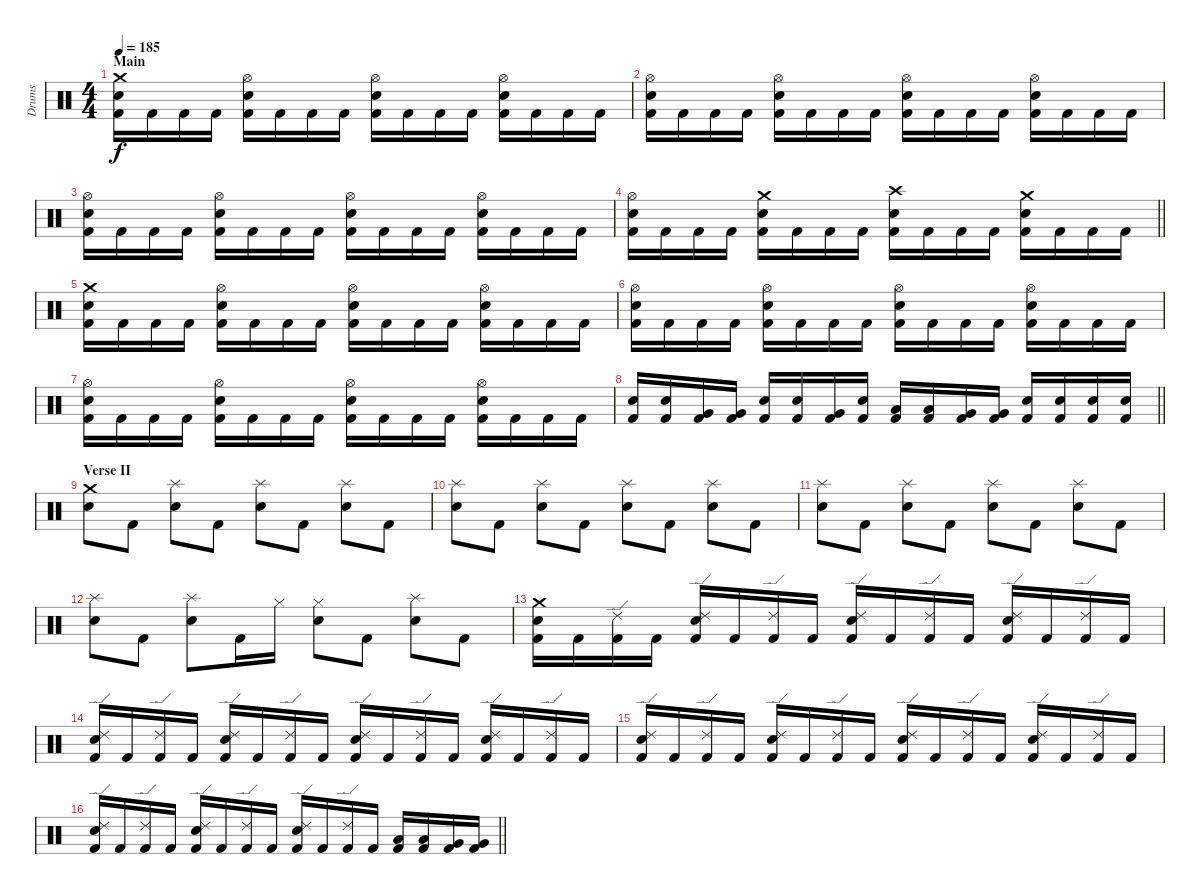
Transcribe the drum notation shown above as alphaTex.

\track ("Drums" "Drums") {instrument percussion}
\staff {score}
\articulation defaults
\ts (4 4)
\section ("" "Main")
\tempo 185
\clef neutral
\ks c
("Kick (hit) 2" "Snare (hit) 2" "Crash medium (hit)").16{dy f} "Kick (hit) 2".16 "Kick (hit) 2".16 "Kick (hit) 2".16 ("Kick (hit) 2" "Snare (hit) 2" "Hi-Hat (open)").16 "Kick (hit) 2".16 "Kick (hit) 2".16 "Kick (hit) 2".16 ("Kick (hit) 2" "Snare (hit) 2" "Hi-Hat (open)").16 "Kick (hit) 2".16 "Kick (hit) 2".16 "Kick (hit) 2".16 ("Kick (hit) 2" "Snare (hit) 2" "Hi-Hat (open)").16 "Kick (hit) 2".16 "Kick (hit) 2".16 "Kick (hit) 2".16 |
("Kick (hit) 2" "Snare (hit) 2" "Hi-Hat (open)").16 "Kick (hit) 2".16 "Kick (hit) 2".16 "Kick (hit) 2".16 ("Kick (hit) 2" "Snare (hit) 2" "Hi-Hat (open)").16 "Kick (hit) 2".16 "Kick (hit) 2".16 "Kick (hit) 2".16 ("Kick (hit) 2" "Snare (hit) 2" "Hi-Hat (open)").16 "Kick (hit) 2".16 "Kick (hit) 2".16 "Kick (hit) 2".16 ("Kick (hit) 2" "Snare (hit) 2" "Hi-Hat (open)").16 "Kick (hit) 2".16 "Kick (hit) 2".16 "Kick (hit) 2".16 |
("Kick (hit) 2" "Snare (hit) 2" "Hi-Hat (open)").16 "Kick (hit) 2".16 "Kick (hit) 2".16 "Kick (hit) 2".16 ("Kick (hit) 2" "Snare (hit) 2" "Hi-Hat (open)").16 "Kick (hit) 2".16 "Kick (hit) 2".16 "Kick (hit) 2".16 ("Kick (hit) 2" "Snare (hit) 2" "Hi-Hat (open)").16 "Kick (hit) 2".16 "Kick (hit) 2".16 "Kick (hit) 2".16 ("Kick (hit) 2" "Snare (hit) 2" "Hi-Hat (open)").16 "Kick (hit) 2".16 "Kick (hit) 2".16 "Kick (hit) 2".16 |
\barLineRight lightlight
("Kick (hit) 2" "Snare (hit) 2" "Hi-Hat (open)").16 "Kick (hit) 2".16 "Kick (hit) 2".16 "Kick (hit) 2".16 ("Kick (hit) 2" "Snare (hit) 2" "Crash medium (hit)").16 "Kick (hit) 2".16 "Kick (hit) 2".16 "Kick (hit) 2".16 ("Kick (hit) 2" "Snare (hit) 2" "Crash high (hit)").16 "Kick (hit) 2".16 "Kick (hit) 2".16 "Kick (hit) 2".16 ("Kick (hit) 2" "Snare (hit) 2" "Crash medium (hit)").16 "Kick (hit) 2".16 "Kick (hit) 2".16 "Kick (hit) 2".16 |
("Kick (hit) 2" "Snare (hit) 2" "Crash medium (hit)").16 "Kick (hit) 2".16 "Kick (hit) 2".16 "Kick (hit) 2".16 ("Kick (hit) 2" "Snare (hit) 2" "Hi-Hat (open)").16 "Kick (hit) 2".16 "Kick (hit) 2".16 "Kick (hit) 2".16 ("Kick (hit) 2" "Snare (hit) 2" "Hi-Hat (open)").16 "Kick (hit) 2".16 "Kick (hit) 2".16 "Kick (hit) 2".16 ("Kick (hit) 2" "Snare (hit) 2" "Hi-Hat (open)").16 "Kick (hit) 2".16 "Kick (hit) 2".16 "Kick (hit) 2".16 |
("Kick (hit) 2" "Snare (hit) 2" "Hi-Hat (open)").16 "Kick (hit) 2".16 "Kick (hit) 2".16 "Kick (hit) 2".16 ("Kick (hit) 2" "Snare (hit) 2" "Hi-Hat (open)").16 "Kick (hit) 2".16 "Kick (hit) 2".16 "Kick (hit) 2".16 ("Kick (hit) 2" "Snare (hit) 2" "Hi-Hat (open)").16 "Kick (hit) 2".16 "Kick (hit) 2".16 "Kick (hit) 2".16 ("Kick (hit) 2" "Snare (hit) 2" "Hi-Hat (open)").16 "Kick (hit) 2".16 "Kick (hit) 2".16 "Kick (hit) 2".16 |
("Kick (hit) 2" "Snare (hit) 2" "Hi-Hat (open)").16 "Kick (hit) 2".16 "Kick (hit) 2".16 "Kick (hit) 2".16 ("Kick (hit) 2" "Snare (hit) 2" "Hi-Hat (open)").16 "Kick (hit) 2".16 "Kick (hit) 2".16 "Kick (hit) 2".16 ("Kick (hit) 2" "Snare (hit) 2" "Hi-Hat (open)").16 "Kick (hit) 2".16 "Kick (hit) 2".16 "Kick (hit) 2".16 ("Kick (hit) 2" "Snare (hit) 2" "Hi-Hat (open)").16 "Kick (hit) 2".16 "Kick (hit) 2".16 "Kick (hit) 2".16 |
\barLineRight lightlight
("Kick (hit) 2" "Snare (hit) 2").16 ("Kick (hit) 2" "Snare (hit) 2").16 ("Kick (hit) 2" "Very Low Tom (hit)").16 ("Kick (hit) 2" "Very Low Tom (hit)").16 ("Kick (hit) 2" "Snare (hit) 2").16 ("Kick (hit) 2" "Snare (hit) 2").16 ("Kick (hit) 2" "Very Low Tom (hit)").16 ("Kick (hit) 2" "Snare (hit) 2").16 ("Kick (hit) 2" "Low Tom (hit)").16 ("Kick (hit) 2" "Low Tom (hit)").16 ("Kick (hit) 2" "Very Low Tom (hit)").16 ("Kick (hit) 2" "Very Low Tom (hit)").16 ("Kick (hit) 2" "Snare (hit) 2").16 ("Kick (hit) 2" "Snare (hit) 2").16 ("Kick (hit) 2" "Snare (hit) 2").16 ("Kick (hit) 2" "Snare (hit) 2").16 |
\section ("" "Verse II")
("Snare (hit) 2" "Crash medium (hit)").8 "Kick (hit) 2".8 ("Snare (hit) 2" "Splash (hit)").8 "Kick (hit) 2".8 ("Snare (hit) 2" "Splash (hit)").8 "Kick (hit) 2".8 ("Snare (hit) 2" "Splash (hit)").8 "Kick (hit) 2".8 |
("Snare (hit) 2" "Splash (hit)").8 "Kick (hit) 2".8 ("Snare (hit) 2" "Splash (hit)").8 "Kick (hit) 2".8 ("Snare (hit) 2" "Splash (hit)").8 "Kick (hit) 2".8 ("Snare (hit) 2" "Splash (hit)").8 "Kick (hit) 2".8 |
("Snare (hit) 2" "Splash (hit)").8 "Kick (hit) 2".8 ("Snare (hit) 2" "Splash (hit)").8 "Kick (hit) 2".8 ("Snare (hit) 2" "Splash (hit)").8 "Kick (hit) 2".8 ("Snare (hit) 2" "Splash (hit)").8 "Kick (hit) 2".8 |
("Snare (hit) 2" "Splash (hit)").8 "Kick (hit) 2".8 ("Snare (hit) 2" "Splash (hit)").8 "Kick (hit) 2".16 "Hi-Hat (closed)".16 ("Snare (hit) 2" "Hi-Hat (closed)").8 "Kick (hit) 2".8 ("Snare (hit) 2" "Splash (hit)").8 "Kick (hit) 2".8 |
("Kick (hit) 2" "Snare (hit) 2" "Crash medium (hit)").16 "Kick (hit) 2".16 ("Kick (hit) 2" "Ride (edge) 2").16 "Kick (hit) 2".16 ("Kick (hit) 2" "Snare (hit) 2" "Ride (edge) 2").16 "Kick (hit) 2".16 ("Kick (hit) 2" "Ride (edge) 2").16 "Kick (hit) 2".16 ("Kick (hit) 2" "Snare (hit) 2" "Ride (edge) 2").16 "Kick (hit) 2".16 ("Kick (hit) 2" "Ride (edge) 2").16 "Kick (hit) 2".16 ("Kick (hit) 2" "Snare (hit) 2" "Ride (edge) 2").16 "Kick (hit) 2".16 ("Kick (hit) 2" "Ride (edge) 2").16 "Kick (hit) 2".16 |
("Kick (hit) 2" "Snare (hit) 2" "Ride (edge) 2").16 "Kick (hit) 2".16 ("Kick (hit) 2" "Ride (edge) 2").16 "Kick (hit) 2".16 ("Kick (hit) 2" "Snare (hit) 2" "Ride (edge) 2").16 "Kick (hit) 2".16 ("Kick (hit) 2" "Ride (edge) 2").16 "Kick (hit) 2".16 ("Kick (hit) 2" "Snare (hit) 2" "Ride (edge) 2").16 "Kick (hit) 2".16 ("Kick (hit) 2" "Ride (edge) 2").16 "Kick (hit) 2".16 ("Kick (hit) 2" "Snare (hit) 2" "Ride (edge) 2").16 "Kick (hit) 2".16 ("Kick (hit) 2" "Ride (edge) 2").16 "Kick (hit) 2".16 |
("Kick (hit) 2" "Snare (hit) 2" "Ride (edge) 2").16 "Kick (hit) 2".16 ("Kick (hit) 2" "Ride (edge) 2").16 "Kick (hit) 2".16 ("Kick (hit) 2" "Snare (hit) 2" "Ride (edge) 2").16 "Kick (hit) 2".16 ("Kick (hit) 2" "Ride (edge) 2").16 "Kick (hit) 2".16 ("Kick (hit) 2" "Snare (hit) 2" "Ride (edge) 2").16 "Kick (hit) 2".16 ("Kick (hit) 2" "Ride (edge) 2").16 "Kick (hit) 2".16 ("Kick (hit) 2" "Snare (hit) 2" "Ride (edge) 2").16 "Kick (hit) 2".16 ("Kick (hit) 2" "Ride (edge) 2").16 "Kick (hit) 2".16 |
\barLineRight lightlight
("Kick (hit) 2" "Snare (hit) 2" "Ride (edge) 2").16 "Kick (hit) 2".16 ("Kick (hit) 2" "Ride (edge) 2").16 "Kick (hit) 2".16 ("Kick (hit) 2" "Snare (hit) 2" "Ride (edge) 2").16 "Kick (hit) 2".16 ("Kick (hit) 2" "Ride (edge) 2").16 "Kick (hit) 2".16 ("Kick (hit) 2" "Snare (hit) 2" "Ride (edge) 2").16 "Kick (hit) 2".16 ("Kick (hit) 2" "Ride (edge) 2").16 "Kick (hit) 2".16 ("Kick (hit) 2" "Low Tom (hit)").16 ("Kick (hit) 2" "Low Tom (hit)").16 ("Kick (hit) 2" "Very Low Tom (hit)").16 ("Kick (hit) 2" "Very Low Tom (hit)").16
